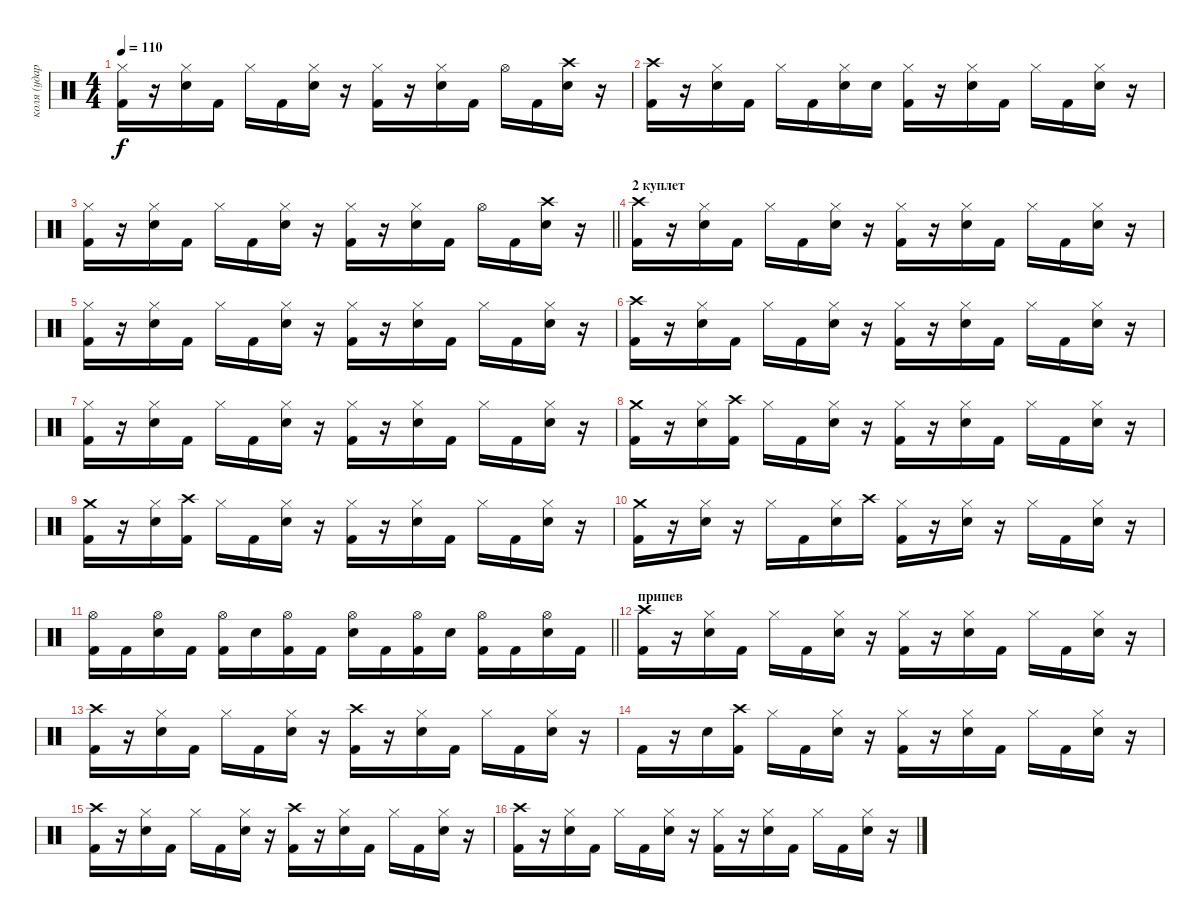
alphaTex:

\track ("коля (ударные)" "коля (удар") {instrument percussion}
\staff {score}
\articulation defaults
\ts (4 4)
\tempo 110
\clef neutral
\ks c
("Kick (hit) 2" "Hi-Hat (closed)").16{dy f} r.16 ("Snare (hit) 2" "Hi-Hat (closed)").16 "Kick (hit) 2".16 "Hi-Hat (closed)".16 "Kick (hit) 2".16 ("Snare (hit) 2" "Hi-Hat (closed)").16 r.16 ("Kick (hit) 2" "Hi-Hat (closed)").16 r.16 ("Snare (hit) 2" "Hi-Hat (closed)").16 "Kick (hit) 2".16 "Hi-Hat (open)".16 "Kick (hit) 2".16 ("Snare (hit) 2" "Crash high (hit)").16 r.16 |
("Kick (hit) 2" "Crash high (hit)").16 r.16 ("Snare (hit) 2" "Hi-Hat (closed)").16 "Kick (hit) 2".16 "Hi-Hat (closed)".16 "Kick (hit) 2".16 ("Snare (hit) 2" "Hi-Hat (closed)").16 "Snare (hit) 2".16 ("Kick (hit) 2" "Hi-Hat (closed)").16 r.16 ("Snare (hit) 2" "Hi-Hat (closed)").16 "Kick (hit) 2".16 "Hi-Hat (closed)".16 "Kick (hit) 2".16 ("Snare (hit) 2" "Hi-Hat (closed)").16 r.16 |
\barLineRight lightlight
("Kick (hit) 2" "Hi-Hat (closed)").16 r.16 ("Snare (hit) 2" "Hi-Hat (closed)").16 "Kick (hit) 2".16 "Hi-Hat (closed)".16 "Kick (hit) 2".16 ("Snare (hit) 2" "Hi-Hat (closed)").16 r.16 ("Kick (hit) 2" "Hi-Hat (closed)").16 r.16 ("Snare (hit) 2" "Hi-Hat (closed)").16 "Kick (hit) 2".16 "Hi-Hat (open)".16 "Kick (hit) 2".16 ("Snare (hit) 2" "Crash high (hit)").16 r.16 |
\section ("" "2 куплет")
("Kick (hit) 2" "Crash high (hit)").16 r.16 ("Snare (hit) 2" "Hi-Hat (closed)").16 "Kick (hit) 2".16 "Hi-Hat (closed)".16 "Kick (hit) 2".16 ("Snare (hit) 2" "Hi-Hat (closed)").16 r.16 ("Kick (hit) 2" "Hi-Hat (closed)").16 r.16 ("Snare (hit) 2" "Hi-Hat (closed)").16 "Kick (hit) 2".16 "Hi-Hat (closed)".16 "Kick (hit) 2".16 ("Snare (hit) 2" "Hi-Hat (closed)").16 r.16 |
("Kick (hit) 2" "Hi-Hat (closed)").16 r.16 ("Snare (hit) 2" "Hi-Hat (closed)").16 "Kick (hit) 2".16 "Hi-Hat (closed)".16 "Kick (hit) 2".16 ("Snare (hit) 2" "Hi-Hat (closed)").16 r.16 ("Kick (hit) 2" "Hi-Hat (closed)").16 r.16 ("Snare (hit) 2" "Hi-Hat (closed)").16 "Kick (hit) 2".16 "Hi-Hat (closed)".16 "Kick (hit) 2".16 ("Snare (hit) 2" "Hi-Hat (closed)").16 r.16 |
("Kick (hit) 2" "Crash high (hit)").16 r.16 ("Snare (hit) 2" "Hi-Hat (closed)").16 "Kick (hit) 2".16 "Hi-Hat (closed)".16 "Kick (hit) 2".16 ("Snare (hit) 2" "Hi-Hat (closed)").16 r.16 ("Kick (hit) 2" "Hi-Hat (closed)").16 r.16 ("Snare (hit) 2" "Hi-Hat (closed)").16 "Kick (hit) 2".16 "Hi-Hat (closed)".16 "Kick (hit) 2".16 ("Snare (hit) 2" "Hi-Hat (closed)").16 r.16 |
("Kick (hit) 2" "Hi-Hat (closed)").16 r.16 ("Snare (hit) 2" "Hi-Hat (closed)").16 "Kick (hit) 2".16 "Hi-Hat (closed)".16 "Kick (hit) 2".16 ("Snare (hit) 2" "Hi-Hat (closed)").16 r.16 ("Kick (hit) 2" "Hi-Hat (closed)").16 r.16 ("Snare (hit) 2" "Hi-Hat (closed)").16 "Kick (hit) 2".16 "Hi-Hat (closed)".16 "Kick (hit) 2".16 ("Snare (hit) 2" "Hi-Hat (closed)").16 r.16 |
("Kick (hit) 2" "Crash medium (hit)").16 r.16 ("Snare (hit) 2" "Hi-Hat (closed)").16 ("Kick (hit) 2" "Crash high (hit)").16 "Hi-Hat (closed)".16 "Kick (hit) 2".16 ("Snare (hit) 2" "Hi-Hat (closed)").16 r.16 ("Kick (hit) 2" "Hi-Hat (closed)").16 r.16 ("Snare (hit) 2" "Hi-Hat (closed)").16 "Kick (hit) 2".16 "Hi-Hat (closed)".16 "Kick (hit) 2".16 ("Snare (hit) 2" "Hi-Hat (closed)").16 r.16 |
("Kick (hit) 2" "Crash medium (hit)").16 r.16 ("Snare (hit) 2" "Hi-Hat (closed)").16 ("Kick (hit) 2" "Crash high (hit)").16 "Hi-Hat (closed)".16 "Kick (hit) 2".16 ("Snare (hit) 2" "Hi-Hat (closed)").16 r.16 ("Kick (hit) 2" "Hi-Hat (closed)").16 r.16 ("Snare (hit) 2" "Hi-Hat (closed)").16 "Kick (hit) 2".16 "Hi-Hat (closed)".16 "Kick (hit) 2".16 ("Snare (hit) 2" "Hi-Hat (closed)").16 r.16 |
("Kick (hit) 2" "Crash medium (hit)").16 r.16 ("Snare (hit) 2" "Hi-Hat (closed)").16 r.16 "Hi-Hat (closed)".16 "Kick (hit) 2".16 ("Snare (hit) 2" "Hi-Hat (closed)").16 "Crash high (hit)".16 ("Kick (hit) 2" "Hi-Hat (closed)").16 r.16 ("Snare (hit) 2" "Hi-Hat (closed)").16 r.16 "Hi-Hat (closed)".16 "Kick (hit) 2".16 ("Snare (hit) 2" "Hi-Hat (closed)").16 r.16 |
\barLineRight lightlight
("Kick (hit) 2" "Hi-Hat (open)").16 "Kick (hit) 2".16 ("Snare (hit) 2" "Hi-Hat (open)").16 "Kick (hit) 2".16 ("Kick (hit) 2" "Hi-Hat (open)").16 "Snare (hit) 2".16 ("Kick (hit) 2" "Hi-Hat (open)").16 "Kick (hit) 2".16 ("Snare (hit) 2" "Hi-Hat (open)").16 "Kick (hit) 2".16 ("Kick (hit) 2" "Hi-Hat (open)").16 "Snare (hit) 2".16 ("Kick (hit) 2" "Hi-Hat (open)").16 "Kick (hit) 2".16 ("Snare (hit) 2" "Hi-Hat (open)").16 "Kick (hit) 2".16 |
\section ("" "припев")
("Kick (hit) 2" "Crash high (hit)").16 r.16 ("Snare (hit) 2" "Hi-Hat (closed)").16 "Kick (hit) 2".16 "Hi-Hat (closed)".16 "Kick (hit) 2".16 ("Snare (hit) 2" "Hi-Hat (closed)").16 r.16 ("Kick (hit) 2" "Hi-Hat (closed)").16 r.16 ("Snare (hit) 2" "Hi-Hat (closed)").16 "Kick (hit) 2".16 "Hi-Hat (closed)".16 "Kick (hit) 2".16 ("Snare (hit) 2" "Hi-Hat (closed)").16 r.16 |
("Kick (hit) 2" "Crash high (hit)").16 r.16 ("Snare (hit) 2" "Hi-Hat (closed)").16 "Kick (hit) 2".16 "Hi-Hat (closed)".16 "Kick (hit) 2".16 ("Snare (hit) 2" "Hi-Hat (closed)").16 r.16 ("Kick (hit) 2" "Crash high (hit)").16 r.16 ("Snare (hit) 2" "Hi-Hat (closed)").16 "Kick (hit) 2".16 "Hi-Hat (closed)".16 "Kick (hit) 2".16 ("Snare (hit) 2" "Hi-Hat (closed)").16 r.16 |
"Kick (hit) 2".16 r.16 "Snare (hit) 2".16 ("Kick (hit) 2" "Crash high (hit)").16 "Hi-Hat (closed)".16 "Kick (hit) 2".16 ("Snare (hit) 2" "Hi-Hat (closed)").16 r.16 ("Kick (hit) 2" "Hi-Hat (closed)").16 r.16 ("Snare (hit) 2" "Hi-Hat (closed)").16 "Kick (hit) 2".16 "Hi-Hat (closed)".16 "Kick (hit) 2".16 ("Snare (hit) 2" "Hi-Hat (closed)").16 r.16 |
("Kick (hit) 2" "Crash high (hit)").16 r.16 ("Snare (hit) 2" "Hi-Hat (closed)").16 "Kick (hit) 2".16 "Hi-Hat (closed)".16 "Kick (hit) 2".16 ("Snare (hit) 2" "Hi-Hat (closed)").16 r.16 ("Kick (hit) 2" "Crash high (hit)").16 r.16 ("Snare (hit) 2" "Hi-Hat (closed)").16 "Kick (hit) 2".16 "Hi-Hat (closed)".16 "Kick (hit) 2".16 ("Snare (hit) 2" "Hi-Hat (closed)").16 r.16 |
("Kick (hit) 2" "Crash high (hit)").16 r.16 ("Snare (hit) 2" "Hi-Hat (closed)").16 "Kick (hit) 2".16 "Hi-Hat (closed)".16 "Kick (hit) 2".16 ("Snare (hit) 2" "Hi-Hat (closed)").16 r.16 ("Kick (hit) 2" "Hi-Hat (closed)").16 r.16 ("Snare (hit) 2" "Hi-Hat (closed)").16 "Kick (hit) 2".16 "Hi-Hat (closed)".16 "Kick (hit) 2".16 ("Snare (hit) 2" "Hi-Hat (closed)").16 r.16
